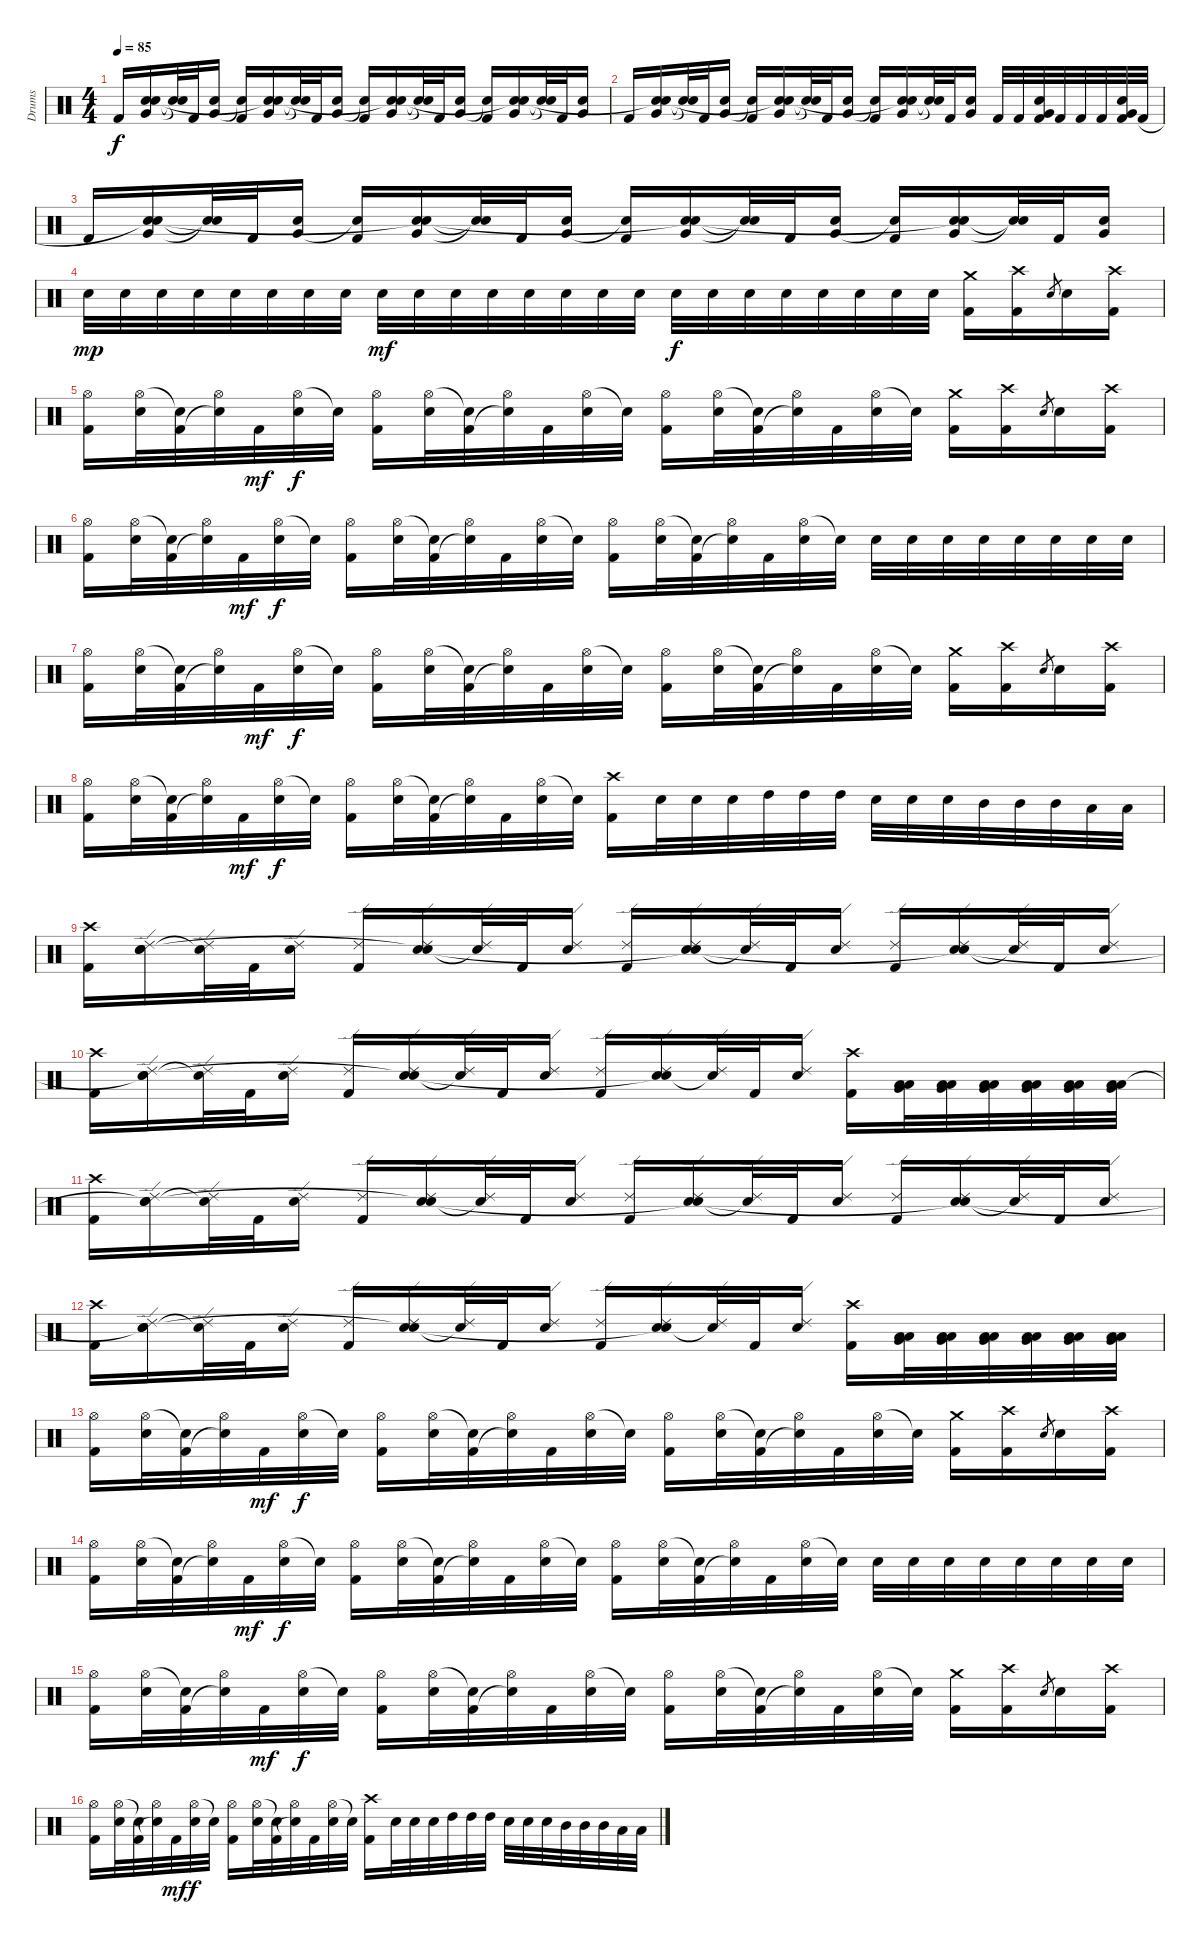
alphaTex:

\track ("Drums" "Drums") {instrument percussion}
\staff {score}
\articulation defaults
\ts (4 4)
\tempo 85
\clef neutral
\ks c "Kick (hit) 2".16{dy f}
("Very Low Tom (hit)" "Electric Snare (hit)" "Snare (hit)"{t}).16 ("Snare (hit)"{t} "Snare (hit)"{t}).32 "Kick (hit) 2".32 ("Very Low Tom (hit)" "Electric Snare (hit)").16 ("Snare (hit)"{t} "Kick (hit) 2").16 ("Very Low Tom (hit)" "Electric Snare (hit)" "Snare (hit)"{t}).16 ("Snare (hit)"{t} "Snare (hit)"{t}).32 "Kick (hit) 2".32 ("Very Low Tom (hit)" "Electric Snare (hit)").16 ("Snare (hit)"{t} "Kick (hit) 2").16 ("Very Low Tom (hit)" "Electric Snare (hit)" "Snare (hit)"{t}).16 ("Snare (hit)"{t} "Snare (hit)"{t}).32 "Kick (hit) 2".32 ("Very Low Tom (hit)" "Electric Snare (hit)").16 ("Snare (hit)"{t} "Kick (hit) 2").16 ("Very Low Tom (hit)" "Electric Snare (hit)" "Snare (hit)"{t}).16 ("Snare (hit)"{t} "Snare (hit)"{t}).32 "Kick (hit) 2".32 ("Very Low Tom (hit)" "Electric Snare (hit)").16 |
"Kick (hit) 2".16 ("Very Low Tom (hit)" "Electric Snare (hit)" "Snare (hit)"{t}).16 ("Snare (hit)"{t} "Snare (hit)"{t}).32 "Kick (hit) 2".32 ("Very Low Tom (hit)" "Electric Snare (hit)").16 ("Snare (hit)"{t} "Kick (hit) 2").16 ("Very Low Tom (hit)" "Electric Snare (hit)" "Snare (hit)"{t}).16 ("Snare (hit)"{t} "Snare (hit)"{t}).32 "Kick (hit) 2".32 ("Very Low Tom (hit)" "Electric Snare (hit)").16 ("Snare (hit)"{t} "Kick (hit) 2").16 ("Very Low Tom (hit)" "Electric Snare (hit)" "Snare (hit)"{t}).16 ("Snare (hit)"{t} "Snare (hit)"{t}).32 "Kick (hit) 2".32 ("Very Low Tom (hit)" "Electric Snare (hit)").16 "Kick (hit) 2".32 "Kick (hit) 2".32 ("Very Low Tom (hit)" "Electric Snare (hit)" "Kick (hit) 2").32 "Kick (hit) 2".32 "Kick (hit) 2".32 "Kick (hit) 2".32 ("Very Low Tom (hit)" "Electric Snare (hit)" "Kick (hit) 2").32 "Kick (hit) 2".32 |
"Kick (hit) 2".16 ("Very Low Tom (hit)" "Electric Snare (hit)" "Snare (hit)"{t}).16 ("Snare (hit)"{t} "Snare (hit)"{t}).32 "Kick (hit) 2".32 ("Very Low Tom (hit)" "Electric Snare (hit)").16 ("Snare (hit)"{t} "Kick (hit) 2").16 ("Very Low Tom (hit)" "Electric Snare (hit)" "Snare (hit)"{t}).16 ("Snare (hit)"{t} "Snare (hit)"{t}).32 "Kick (hit) 2".32 ("Very Low Tom (hit)" "Electric Snare (hit)").16 ("Snare (hit)"{t} "Kick (hit) 2").16 ("Very Low Tom (hit)" "Electric Snare (hit)" "Snare (hit)"{t}).16 ("Snare (hit)"{t} "Snare (hit)"{t}).32 "Kick (hit) 2".32 ("Very Low Tom (hit)" "Electric Snare (hit)").16 ("Snare (hit)"{t} "Kick (hit) 2").16 ("Very Low Tom (hit)" "Electric Snare (hit)" "Snare (hit)"{t}).16 ("Snare (hit)"{t} "Snare (hit)"{t}).32 "Kick (hit) 2".32 ("Very Low Tom (hit)" "Electric Snare (hit)").16 |
"Electric Snare (hit)".32{dy mp} "Electric Snare (hit)".32 "Electric Snare (hit)".32 "Electric Snare (hit)".32 "Electric Snare (hit)".32 "Electric Snare (hit)".32 "Electric Snare (hit)".32 "Electric Snare (hit)".32 "Electric Snare (hit)".32{dy mf} "Electric Snare (hit)".32 "Electric Snare (hit)".32 "Electric Snare (hit)".32 "Electric Snare (hit)".32 "Electric Snare (hit)".32 "Electric Snare (hit)".32 "Electric Snare (hit)".32 "Electric Snare (hit)".32{dy f} "Electric Snare (hit)".32 "Electric Snare (hit)".32 "Electric Snare (hit)".32 "Electric Snare (hit)".32 "Electric Snare (hit)".32 "Electric Snare (hit)".32 "Electric Snare (hit)".32 ("Crash medium (hit)" "Kick (hit) 2").16 ("Crash high (hit)" "Kick (hit) 2").16 "Electric Snare (hit)".8{gr} "Electric Snare (hit)".16 ("Crash high (hit)" "Kick (hit) 2").16 |
("Hi-Hat (open)" "Kick (hit) 2").16 ("Hi-Hat (open)" "Electric Snare (hit)").32 ("Snare (hit)"{t} "Kick (hit) 2").32 ("Hi-Hat (open)" "Snare (hit)"{t}).32 "Kick (hit) 2".32{dy mf} ("Hi-Hat (open)" "Electric Snare (hit)").32{dy f} "Snare (hit)"{t}.32 ("Hi-Hat (open)" "Kick (hit) 2").16 ("Hi-Hat (open)" "Electric Snare (hit)").32 ("Snare (hit)"{t} "Kick (hit) 2").32 ("Hi-Hat (open)" "Snare (hit)"{t}).32 "Kick (hit) 2".32 ("Hi-Hat (open)" "Electric Snare (hit)").32 "Snare (hit)"{t}.32 ("Hi-Hat (open)" "Kick (hit) 2").16 ("Hi-Hat (open)" "Electric Snare (hit)").32 ("Snare (hit)"{t} "Kick (hit) 2").32 ("Hi-Hat (open)" "Snare (hit)"{t}).32 "Kick (hit) 2".32 ("Hi-Hat (open)" "Electric Snare (hit)").32 "Snare (hit)"{t}.32 ("Crash medium (hit)" "Kick (hit) 2").16 ("Crash high (hit)" "Kick (hit) 2").16 "Electric Snare (hit)".8{gr} "Electric Snare (hit)".16 ("Crash high (hit)" "Kick (hit) 2").16 |
("Hi-Hat (open)" "Kick (hit) 2").16 ("Hi-Hat (open)" "Electric Snare (hit)").32 ("Snare (hit)"{t} "Kick (hit) 2").32 ("Hi-Hat (open)" "Snare (hit)"{t}).32 "Kick (hit) 2".32{dy mf} ("Hi-Hat (open)" "Electric Snare (hit)").32{dy f} "Snare (hit)"{t}.32 ("Hi-Hat (open)" "Kick (hit) 2").16 ("Hi-Hat (open)" "Electric Snare (hit)").32 ("Snare (hit)"{t} "Kick (hit) 2").32 ("Hi-Hat (open)" "Snare (hit)"{t}).32 "Kick (hit) 2".32 ("Hi-Hat (open)" "Electric Snare (hit)").32 "Snare (hit)"{t}.32 ("Hi-Hat (open)" "Kick (hit) 2").16 ("Hi-Hat (open)" "Electric Snare (hit)").32 ("Snare (hit)"{t} "Kick (hit) 2").32 ("Hi-Hat (open)" "Snare (hit)"{t}).32 "Kick (hit) 2".32 ("Hi-Hat (open)" "Electric Snare (hit)").32 "Snare (hit)"{t}.32 "Electric Snare (hit)".32 "Electric Snare (hit)".32 "Electric Snare (hit)".32 "Electric Snare (hit)".32 "Electric Snare (hit)".32 "Electric Snare (hit)".32 "Electric Snare (hit)".32 "Electric Snare (hit)".32 |
("Hi-Hat (open)" "Kick (hit) 2").16 ("Hi-Hat (open)" "Electric Snare (hit)").32 ("Snare (hit)"{t} "Kick (hit) 2").32 ("Hi-Hat (open)" "Snare (hit)"{t}).32 "Kick (hit) 2".32{dy mf} ("Hi-Hat (open)" "Electric Snare (hit)").32{dy f} "Snare (hit)"{t}.32 ("Hi-Hat (open)" "Kick (hit) 2").16 ("Hi-Hat (open)" "Electric Snare (hit)").32 ("Snare (hit)"{t} "Kick (hit) 2").32 ("Hi-Hat (open)" "Snare (hit)"{t}).32 "Kick (hit) 2".32 ("Hi-Hat (open)" "Electric Snare (hit)").32 "Snare (hit)"{t}.32 ("Hi-Hat (open)" "Kick (hit) 2").16 ("Hi-Hat (open)" "Electric Snare (hit)").32 ("Snare (hit)"{t} "Kick (hit) 2").32 ("Hi-Hat (open)" "Snare (hit)"{t}).32 "Kick (hit) 2".32 ("Hi-Hat (open)" "Electric Snare (hit)").32 "Snare (hit)"{t}.32 ("Crash medium (hit)" "Kick (hit) 2").16 ("Crash high (hit)" "Kick (hit) 2").16 "Electric Snare (hit)".8{gr} "Electric Snare (hit)".16 ("Crash high (hit)" "Kick (hit) 2").16 |
("Hi-Hat (open)" "Kick (hit) 2").16 ("Hi-Hat (open)" "Electric Snare (hit)").32 ("Snare (hit)"{t} "Kick (hit) 2").32 ("Hi-Hat (open)" "Snare (hit)"{t}).32 "Kick (hit) 2".32{dy mf} ("Hi-Hat (open)" "Electric Snare (hit)").32{dy f} "Snare (hit)"{t}.32 ("Hi-Hat (open)" "Kick (hit) 2").16 ("Hi-Hat (open)" "Electric Snare (hit)").32 ("Snare (hit)"{t} "Kick (hit) 2").32 ("Hi-Hat (open)" "Snare (hit)"{t}).32 "Kick (hit) 2".32 ("Hi-Hat (open)" "Electric Snare (hit)").32 "Snare (hit)"{t}.32 ("Crash high (hit)" "Kick (hit) 2").16 "Electric Snare (hit)".32 "Electric Snare (hit)".32 "Electric Snare (hit)".32 "High Tom (hit)".32 "High Tom (hit)".32 "High Tom (hit)".32 "Electric Snare (hit)".32 "Electric Snare (hit)".32 "Electric Snare (hit)".32 "Mid Tom (hit)".32 "Mid Tom (hit)".32 "Mid Tom (hit)".32 "Low Tom (hit)".32 "Low Tom (hit)".32 |
("Crash high (hit)" "Kick (hit) 2").16 ("Ride (edge) 2" "Electric Snare (hit)" "Snare (hit)").16 ("Ride (edge) 2" "Snare (hit)"{t}).32 "Kick (hit) 2".32 ("Ride (edge) 2" "Electric Snare (hit)").16 ("Ride (edge) 2" "Kick (hit) 2").16 ("Ride (edge) 2" "Electric Snare (hit)" "Snare (hit)"{t}).16 ("Ride (edge) 2" "Snare (hit)"{t}).32 "Kick (hit) 2".32 ("Ride (edge) 2" "Electric Snare (hit)").16 ("Ride (edge) 2" "Kick (hit) 2").16 ("Ride (edge) 2" "Electric Snare (hit)" "Snare (hit)"{t}).16 ("Ride (edge) 2" "Snare (hit)"{t}).32 "Kick (hit) 2".32 ("Ride (edge) 2" "Electric Snare (hit)").16 ("Ride (edge) 2" "Kick (hit) 2").16 ("Ride (edge) 2" "Electric Snare (hit)" "Snare (hit)"{t}).16 ("Ride (edge) 2" "Snare (hit)"{t}).32 "Kick (hit) 2".32 ("Ride (edge) 2" "Electric Snare (hit)").16 |
("Crash high (hit)" "Kick (hit) 2").16 ("Ride (edge) 2" "Electric Snare (hit)" "Snare (hit)"{t}).16 ("Ride (edge) 2" "Snare (hit)"{t}).32 "Kick (hit) 2".32 ("Ride (edge) 2" "Electric Snare (hit)").16 ("Ride (edge) 2" "Kick (hit) 2").16 ("Ride (edge) 2" "Electric Snare (hit)" "Snare (hit)"{t}).16 ("Ride (edge) 2" "Snare (hit)"{t}).32 "Kick (hit) 2".32 ("Ride (edge) 2" "Electric Snare (hit)").16 ("Ride (edge) 2" "Kick (hit) 2").16 ("Ride (edge) 2" "Electric Snare (hit)" "Snare (hit)"{t}).16 ("Ride (edge) 2" "Snare (hit)"{t}).32 "Kick (hit) 2".32 ("Ride (edge) 2" "Electric Snare (hit)").16 ("Crash high (hit)" "Kick (hit) 2").16 ("Low Tom (hit)" "Very Low Tom (hit)" "Low Floor Tom (hit)").32 ("Low Tom (hit)" "Very Low Tom (hit)" "Low Floor Tom (hit)").32 ("Low Tom (hit)" "Very Low Tom (hit)" "Low Floor Tom (hit)").32 ("Low Tom (hit)" "Very Low Tom (hit)" "Low Floor Tom (hit)").32 ("Low Tom (hit)" "Very Low Tom (hit)" "Low Floor Tom (hit)").32 ("Low Tom (hit)" "Very Low Tom (hit)" "Low Floor Tom (hit)").32 |
("Crash high (hit)" "Kick (hit) 2").16 ("Ride (edge) 2" "Electric Snare (hit)" "Snare (hit)"{t}).16 ("Ride (edge) 2" "Snare (hit)"{t}).32 "Kick (hit) 2".32 ("Ride (edge) 2" "Electric Snare (hit)").16 ("Ride (edge) 2" "Kick (hit) 2").16 ("Ride (edge) 2" "Electric Snare (hit)" "Snare (hit)"{t}).16 ("Ride (edge) 2" "Snare (hit)"{t}).32 "Kick (hit) 2".32 ("Ride (edge) 2" "Electric Snare (hit)").16 ("Ride (edge) 2" "Kick (hit) 2").16 ("Ride (edge) 2" "Electric Snare (hit)" "Snare (hit)"{t}).16 ("Ride (edge) 2" "Snare (hit)"{t}).32 "Kick (hit) 2".32 ("Ride (edge) 2" "Electric Snare (hit)").16 ("Ride (edge) 2" "Kick (hit) 2").16 ("Ride (edge) 2" "Electric Snare (hit)" "Snare (hit)"{t}).16 ("Ride (edge) 2" "Snare (hit)"{t}).32 "Kick (hit) 2".32 ("Ride (edge) 2" "Electric Snare (hit)").16 |
("Crash high (hit)" "Kick (hit) 2").16 ("Ride (edge) 2" "Electric Snare (hit)" "Snare (hit)"{t}).16 ("Ride (edge) 2" "Snare (hit)"{t}).32 "Kick (hit) 2".32 ("Ride (edge) 2" "Electric Snare (hit)").16 ("Ride (edge) 2" "Kick (hit) 2").16 ("Ride (edge) 2" "Electric Snare (hit)" "Snare (hit)"{t}).16 ("Ride (edge) 2" "Snare (hit)"{t}).32 "Kick (hit) 2".32 ("Ride (edge) 2" "Electric Snare (hit)").16 ("Ride (edge) 2" "Kick (hit) 2").16 ("Ride (edge) 2" "Electric Snare (hit)" "Snare (hit)"{t}).16 ("Ride (edge) 2" "Snare (hit)"{t}).32 "Kick (hit) 2".32 ("Ride (edge) 2" "Electric Snare (hit)").16 ("Crash high (hit)" "Kick (hit) 2").16 ("Low Tom (hit)" "Very Low Tom (hit)" "Low Floor Tom (hit)").32 ("Low Tom (hit)" "Very Low Tom (hit)" "Low Floor Tom (hit)").32 ("Low Tom (hit)" "Very Low Tom (hit)" "Low Floor Tom (hit)").32 ("Low Tom (hit)" "Very Low Tom (hit)" "Low Floor Tom (hit)").32 ("Low Tom (hit)" "Very Low Tom (hit)" "Low Floor Tom (hit)").32 ("Low Tom (hit)" "Very Low Tom (hit)" "Low Floor Tom (hit)").32 |
("Hi-Hat (open)" "Kick (hit) 2").16 ("Hi-Hat (open)" "Electric Snare (hit)").32 ("Snare (hit)"{t} "Kick (hit) 2").32 ("Hi-Hat (open)" "Snare (hit)"{t}).32 "Kick (hit) 2".32{dy mf} ("Hi-Hat (open)" "Electric Snare (hit)").32{dy f} "Snare (hit)"{t}.32 ("Hi-Hat (open)" "Kick (hit) 2").16 ("Hi-Hat (open)" "Electric Snare (hit)").32 ("Snare (hit)"{t} "Kick (hit) 2").32 ("Hi-Hat (open)" "Snare (hit)"{t}).32 "Kick (hit) 2".32 ("Hi-Hat (open)" "Electric Snare (hit)").32 "Snare (hit)"{t}.32 ("Hi-Hat (open)" "Kick (hit) 2").16 ("Hi-Hat (open)" "Electric Snare (hit)").32 ("Snare (hit)"{t} "Kick (hit) 2").32 ("Hi-Hat (open)" "Snare (hit)"{t}).32 "Kick (hit) 2".32 ("Hi-Hat (open)" "Electric Snare (hit)").32 "Snare (hit)"{t}.32 ("Crash medium (hit)" "Kick (hit) 2").16 ("Crash high (hit)" "Kick (hit) 2").16 "Electric Snare (hit)".8{gr} "Electric Snare (hit)".16 ("Crash high (hit)" "Kick (hit) 2").16 |
("Hi-Hat (open)" "Kick (hit) 2").16 ("Hi-Hat (open)" "Electric Snare (hit)").32 ("Snare (hit)"{t} "Kick (hit) 2").32 ("Hi-Hat (open)" "Snare (hit)"{t}).32 "Kick (hit) 2".32{dy mf} ("Hi-Hat (open)" "Electric Snare (hit)").32{dy f} "Snare (hit)"{t}.32 ("Hi-Hat (open)" "Kick (hit) 2").16 ("Hi-Hat (open)" "Electric Snare (hit)").32 ("Snare (hit)"{t} "Kick (hit) 2").32 ("Hi-Hat (open)" "Snare (hit)"{t}).32 "Kick (hit) 2".32 ("Hi-Hat (open)" "Electric Snare (hit)").32 "Snare (hit)"{t}.32 ("Hi-Hat (open)" "Kick (hit) 2").16 ("Hi-Hat (open)" "Electric Snare (hit)").32 ("Snare (hit)"{t} "Kick (hit) 2").32 ("Hi-Hat (open)" "Snare (hit)"{t}).32 "Kick (hit) 2".32 ("Hi-Hat (open)" "Electric Snare (hit)").32 "Snare (hit)"{t}.32 "Electric Snare (hit)".32 "Electric Snare (hit)".32 "Electric Snare (hit)".32 "Electric Snare (hit)".32 "Electric Snare (hit)".32 "Electric Snare (hit)".32 "Electric Snare (hit)".32 "Electric Snare (hit)".32 |
("Hi-Hat (open)" "Kick (hit) 2").16 ("Hi-Hat (open)" "Electric Snare (hit)").32 ("Snare (hit)"{t} "Kick (hit) 2").32 ("Hi-Hat (open)" "Snare (hit)"{t}).32 "Kick (hit) 2".32{dy mf} ("Hi-Hat (open)" "Electric Snare (hit)").32{dy f} "Snare (hit)"{t}.32 ("Hi-Hat (open)" "Kick (hit) 2").16 ("Hi-Hat (open)" "Electric Snare (hit)").32 ("Snare (hit)"{t} "Kick (hit) 2").32 ("Hi-Hat (open)" "Snare (hit)"{t}).32 "Kick (hit) 2".32 ("Hi-Hat (open)" "Electric Snare (hit)").32 "Snare (hit)"{t}.32 ("Hi-Hat (open)" "Kick (hit) 2").16 ("Hi-Hat (open)" "Electric Snare (hit)").32 ("Snare (hit)"{t} "Kick (hit) 2").32 ("Hi-Hat (open)" "Snare (hit)"{t}).32 "Kick (hit) 2".32 ("Hi-Hat (open)" "Electric Snare (hit)").32 "Snare (hit)"{t}.32 ("Crash medium (hit)" "Kick (hit) 2").16 ("Crash high (hit)" "Kick (hit) 2").16 "Electric Snare (hit)".8{gr} "Electric Snare (hit)".16 ("Crash high (hit)" "Kick (hit) 2").16 |
("Hi-Hat (open)" "Kick (hit) 2").16 ("Hi-Hat (open)" "Electric Snare (hit)").32 ("Snare (hit)"{t} "Kick (hit) 2").32 ("Hi-Hat (open)" "Snare (hit)"{t}).32 "Kick (hit) 2".32{dy mf} ("Hi-Hat (open)" "Electric Snare (hit)").32{dy f} "Snare (hit)"{t}.32 ("Hi-Hat (open)" "Kick (hit) 2").16 ("Hi-Hat (open)" "Electric Snare (hit)").32 ("Snare (hit)"{t} "Kick (hit) 2").32 ("Hi-Hat (open)" "Snare (hit)"{t}).32 "Kick (hit) 2".32 ("Hi-Hat (open)" "Electric Snare (hit)").32 "Snare (hit)"{t}.32 ("Crash high (hit)" "Kick (hit) 2").16 "Electric Snare (hit)".32 "Electric Snare (hit)".32 "Electric Snare (hit)".32 "High Tom (hit)".32 "High Tom (hit)".32 "High Tom (hit)".32 "Electric Snare (hit)".32 "Electric Snare (hit)".32 "Electric Snare (hit)".32 "Mid Tom (hit)".32 "Mid Tom (hit)".32 "Mid Tom (hit)".32 "Low Tom (hit)".32 "Low Tom (hit)".32
